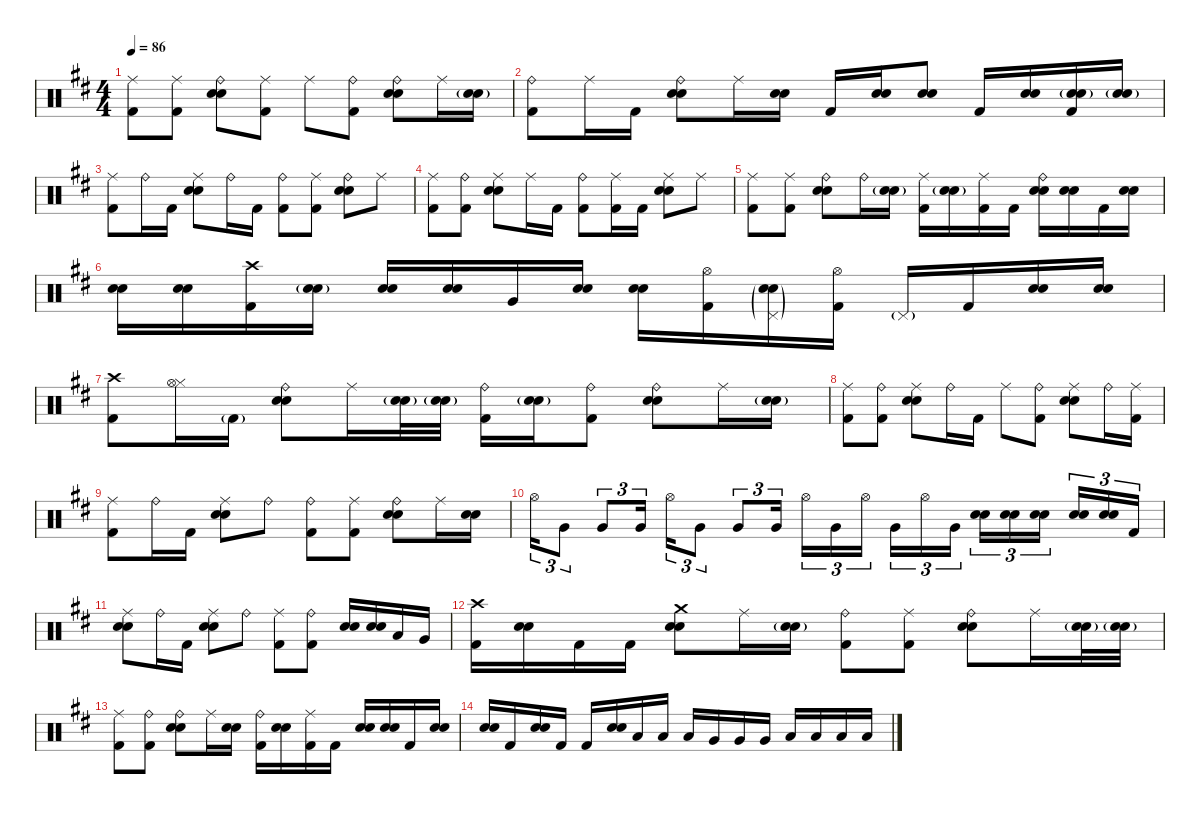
\defaultSystemsLayout 4
\hideDynamics
\bracketExtendMode nobrackets
\singleTrackTrackNamePolicy hidden
\multiTrackTrackNamePolicy hidden
\firstSystemTrackNameMode fullname
\firstSystemTrackNameOrientation horizontal
\otherSystemsTrackNameOrientation horizontal
\track ("Batterie" "drm.") {defaultSystemsLayout 4 instrument percussion}
\staff {score}
\articulation defaults
\ts (4 4)
\tempo 86
\clef neutral
\ks bminor
("Ride (middle)"{acc forcenatural} "Kick (hit) 2"{acc forcenatural}).8{dy mf beam Down} ("Ride (middle)"{acc forcenatural} "Kick (hit) 2"{acc forcenatural}).8{beam Down} ("Ride (bell)"{acc forcenatural} "Snare (hit) 2"{acc forcenatural} "Snare (hit) 2"{acc forcenatural}).8{beam Down} ("Ride (middle)"{acc forcenatural} "Kick (hit) 2"{acc forcenatural}).8{beam Down} "Ride (middle)"{acc forcenatural}.8{beam Down} ("Ride (bell)"{acc forcenatural} "Kick (hit) 2"{acc forcenatural}).8{beam Down} ("Ride (bell)"{acc forcenatural} "Snare (hit) 2"{acc forcenatural} "Snare (hit) 2"{acc forcenatural}).8{beam Down} "Ride (middle)"{acc forcenatural}.16{beam Down} ("Snare (hit) 2"{g acc forcenatural} "Snare (hit) 2"{g acc forcenatural}).16{dy mp beam Down} |
("Ride (bell)"{acc forcenatural} "Kick (hit) 2"{acc forcenatural}).8{dy mf beam Down} "Ride (middle)"{acc forcenatural}.16{beam Down} "Kick (hit) 2"{acc forcenatural}.16{beam Down} ("Ride (bell)"{acc forcenatural} "Snare (hit) 2"{acc forcenatural} "Snare (hit) 2"{acc forcenatural}).8{beam Down} "Ride (middle)"{acc forcenatural}.16{beam Down} ("Snare (hit) 2"{acc forcenatural} "Snare (hit) 2"{acc forcenatural}).16{beam Down} "Kick (hit) 2"{acc forcenatural}.16{beam Up} ("Snare (hit) 2"{acc forcenatural} "Snare (hit) 2"{acc forcenatural}).16{beam Up} ("Snare (hit) 2"{acc forcenatural} "Snare (hit) 2"{acc forcenatural}).8{beam Up} "Kick (hit) 2"{acc forcenatural}.16{beam Up} ("Snare (hit) 2"{acc forcenatural} "Snare (hit) 2"{acc forcenatural}).16{beam Up} ("Snare (hit) 2"{g acc forcenatural} "Snare (hit) 2"{g acc forcenatural} "Kick (hit) 2"{acc forcenatural}).16{beam Up} ("Snare (hit) 2"{g acc forcenatural} "Snare (hit) 2"{g acc forcenatural}).16{dy f beam Up} |
("Ride (middle)"{acc forcenatural} "Kick (hit) 2"{acc forcenatural}).8{dy mf beam Down} "Ride (bell)"{acc forcenatural}.16{beam Down} "Kick (hit) 2"{acc forcenatural}.16{beam Down} ("Ride (middle)"{acc forcenatural} "Snare (hit) 2"{acc forcenatural} "Snare (hit) 2"{acc forcenatural}).8{beam Down} "Ride (bell)"{acc forcenatural}.16{beam Down} "Kick (hit) 2"{acc forcenatural}.16{beam Down} ("Ride (bell)"{acc forcenatural} "Kick (hit) 2"{acc forcenatural}).8{beam Down} ("Ride (middle)"{acc forcenatural} "Kick (hit) 2"{acc forcenatural}).8{beam Down} ("Ride (bell)"{acc forcenatural} "Snare (hit) 2"{acc forcenatural} "Snare (hit) 2"{acc forcenatural}).8{beam Down} "Ride (middle)"{acc forcenatural}.8{beam Down} |
("Ride (middle)"{acc forcenatural} "Kick (hit) 2"{acc forcenatural}).8{beam Down} ("Ride (bell)"{acc forcenatural} "Kick (hit) 2"{acc forcenatural}).8{beam Down} ("Ride (middle)"{acc forcenatural} "Snare (hit) 2"{acc forcenatural} "Snare (hit) 2"{acc forcenatural}).8{beam Down} "Ride (middle)"{acc forcenatural}.16{beam Down} "Kick (hit) 2"{acc forcenatural}.16{beam Down} ("Ride (bell)"{acc forcenatural} "Kick (hit) 2"{acc forcenatural}).8{beam Down} ("Ride (middle)"{acc forcenatural} "Kick (hit) 2"{acc forcenatural}).16{beam Down} "Kick (hit) 2"{acc forcenatural}.16{beam Down} ("Ride (middle)"{acc forcenatural} "Snare (hit) 2"{acc forcenatural} "Snare (hit) 2"{acc forcenatural}).8{beam Down} "Ride (middle)"{acc forcenatural}.8{beam Down} |
("Ride (middle)"{acc forcenatural} "Kick (hit) 2"{acc forcenatural}).8{beam Down} ("Ride (middle)"{acc forcenatural} "Kick (hit) 2"{acc forcenatural}).8{beam Down} ("Ride (bell)"{acc forcenatural} "Snare (hit) 2"{acc forcenatural} "Snare (hit) 2"{acc forcenatural}).8{beam Down} "Ride (bell)"{acc forcenatural}.16{beam Down} ("Snare (hit) 2"{g acc forcenatural} "Snare (hit) 2"{g acc forcenatural}).16{dy f beam Down} ("Ride (middle)"{acc forcenatural} "Kick (hit) 2"{acc forcenatural}).16{dy mf beam Down} ("Snare (hit) 2"{g acc forcenatural} "Snare (hit) 2"{g acc forcenatural}).16{dy f beam Down} ("Ride (middle)"{acc forcenatural} "Kick (hit) 2"{acc forcenatural}).16{dy mf beam Down} "Kick (hit) 2"{acc forcenatural}.16{beam Down} ("Ride (bell)"{acc forcenatural} "Snare (hit) 2"{acc forcenatural} "Snare (hit) 2"{acc forcenatural}).16{beam Down} ("Snare (hit) 2"{acc forcenatural} "Snare (hit) 2"{acc forcenatural}).16{beam Down} "Kick (hit) 2"{acc forcenatural}.16{beam Down} ("Snare (hit) 2"{acc forcenatural} "Snare (hit) 2"{acc forcenatural}).16{beam Down} |
("Snare (hit) 2"{acc forcenatural} "Snare (hit) 2"{acc forcenatural}).16{beam Down} ("Snare (hit) 2"{acc forcenatural} "Snare (hit) 2"{acc forcenatural}).16{beam Down} ("Crash high (hit)"{acc forcenatural} "Kick (hit) 2"{acc forcenatural}).16{beam Down} ("Snare (hit) 2"{g acc forcenatural} "Snare (hit) 2"{g acc forcenatural}).16{dy f beam Down} ("Snare (hit) 2"{acc forcenatural} "Snare (hit) 2"{acc forcenatural}).16{dy mf beam Up} ("Snare (hit) 2"{acc forcenatural} "Snare (hit) 2"{acc forcenatural}).16{beam Up} "Very Low Tom (hit)"{acc forcenatural}.16{dy ff beam Up} ("Snare (hit) 2"{acc forcenatural} "Snare (hit) 2"{acc forcenatural}).16{dy mf beam Up} ("Snare (hit) 2"{acc forcenatural} "Snare (hit) 2"{acc forcenatural}).16{beam Down} ("Hi-Hat (open)"{acc forcenatural} "Kick (hit) 2"{acc forcenatural}).16{beam Down} ("Pedal Hi-Hat (hit)"{g acc forcenatural} "Snare (hit) 2"{g acc forcenatural} "Snare (hit) 2"{g acc forcenatural}).16{dy f beam Down} ("Hi-Hat (open)"{acc forcenatural} "Kick (hit) 2"{acc forcenatural}).16{dy mf beam Down} "Pedal Hi-Hat (hit)"{g acc forcenatural}.16{dy f beam Up} "Kick (hit) 2"{acc forcenatural}.16{dy mf beam Up} ("Snare (hit) 2"{acc forcenatural} "Snare (hit) 2"{acc forcenatural}).16{beam Up} ("Snare (hit) 2"{acc forcenatural} "Snare (hit) 2"{acc forcenatural}).16{beam Up} |
("Crash high (hit)"{acc forcenatural} "Kick (hit) 2"{acc forcenatural}).8{beam Down} ("Hi-Hat (closed)"{acc forcenatural} "Hi-Hat (open)"{acc forcenatural}).16{dy f beam Down} "Kick (hit) 2"{g acc forcenatural}.16{beam Down} ("Ride (bell)"{acc forcenatural} "Snare (hit) 2"{acc forcenatural} "Snare (hit) 2"{acc forcenatural}).8{dy mf beam Down} "Ride (middle)"{acc forcenatural}.16{beam Down} ("Snare (hit) 2"{g acc forcenatural} "Snare (hit) 2"{g acc forcenatural}).32{beam Down} ("Snare (hit) 2"{g acc forcenatural} "Snare (hit) 2"{g acc forcenatural}).32{beam Down} ("Ride (bell)"{acc forcenatural} "Kick (hit) 2"{acc forcenatural}).16{beam Down} ("Snare (hit) 2"{g acc forcenatural} "Snare (hit) 2"{g acc forcenatural}).16{beam Down} ("Ride (bell)"{acc forcenatural} "Kick (hit) 2"{acc forcenatural}).8{beam Down} ("Ride (bell)"{acc forcenatural} "Snare (hit) 2"{acc forcenatural} "Snare (hit) 2"{acc forcenatural}).8{beam Down} "Ride (middle)"{acc forcenatural}.16{beam Down} ("Snare (hit) 2"{g acc forcenatural} "Snare (hit) 2"{g acc forcenatural}).16{dy f beam Down} |
("Ride (middle)"{acc forcenatural} "Kick (hit) 2"{acc forcenatural}).8{dy mf beam Down} ("Ride (bell)"{acc forcenatural} "Kick (hit) 2"{acc forcenatural}).8{beam Down} ("Ride (middle)"{acc forcenatural} "Snare (hit) 2"{acc forcenatural} "Snare (hit) 2"{acc forcenatural}).8{beam Down} "Ride (bell)"{acc forcenatural}.16{beam Down} "Kick (hit) 2"{acc forcenatural}.16{beam Down} "Ride (middle)"{acc forcenatural}.8{beam Down} ("Ride (bell)"{acc forcenatural} "Kick (hit) 2"{acc forcenatural}).8{beam Down} ("Ride (middle)"{acc forcenatural} "Snare (hit) 2"{acc forcenatural} "Snare (hit) 2"{acc forcenatural}).8{beam Down} "Ride (bell)"{acc forcenatural}.16{beam Down} ("Ride (middle)"{acc forcenatural} "Kick (hit) 2"{acc forcenatural}).16{beam Down} |
("Ride (middle)"{acc forcenatural} "Kick (hit) 2"{acc forcenatural}).8{beam Down} "Ride (bell)"{acc forcenatural}.16{beam Down} "Kick (hit) 2"{acc forcenatural}.16{beam Down} ("Ride (middle)"{acc forcenatural} "Snare (hit) 2"{acc forcenatural} "Snare (hit) 2"{acc forcenatural}).8{beam Down} "Ride (bell)"{acc forcenatural}.8{beam Down} ("Ride (bell)"{acc forcenatural} "Kick (hit) 2"{acc forcenatural}).8{beam Down} ("Ride (middle)"{acc forcenatural} "Kick (hit) 2"{acc forcenatural}).8{beam Down} ("Ride (bell)"{acc forcenatural} "Snare (hit) 2"{acc forcenatural} "Snare (hit) 2"{acc forcenatural}).8{beam Down} "Ride (middle)"{acc forcenatural}.16{beam Down} ("Snare (hit) 2"{acc forcenatural} "Snare (hit) 2"{acc forcenatural}).16{beam Down} |
"Hi-Hat (open)"{acc forcenatural}.16{tu (3 2) dy f beam Down} "Very Low Tom (hit)"{acc forcenatural}.8{tu (3 2) beam Down} "Very Low Tom (hit)"{acc forcenatural}.8{tu (3 2) beam Up} "Very Low Tom (hit)"{acc forcenatural}.16{tu (3 2) beam Up} "Hi-Hat (open)"{acc forcenatural}.16{tu (3 2) beam Down} "Very Low Tom (hit)"{acc forcenatural}.8{tu (3 2) beam Down} "Very Low Tom (hit)"{acc forcenatural}.8{tu (3 2) beam Up} "Very Low Tom (hit)"{acc forcenatural}.16{tu (3 2) beam Up} "Hi-Hat (open)"{acc forcenatural}.16{tu (3 2) beam Down} "Very Low Tom (hit)"{acc forcenatural}.16{tu (3 2) beam Down} "Hi-Hat (open)"{acc forcenatural}.16{tu (3 2) beam Down} "Very Low Tom (hit)"{acc forcenatural}.16{tu (3 2) beam Down} "Hi-Hat (open)"{acc forcenatural}.16{tu (3 2) beam Down} "Very Low Tom (hit)"{acc forcenatural}.16{tu (3 2) beam Down} ("Snare (hit) 2"{acc forcenatural} "Snare (hit) 2"{acc forcenatural}).16{tu (3 2) dy mf beam Down} ("Snare (hit) 2"{acc forcenatural} "Snare (hit) 2"{acc forcenatural}).16{tu (3 2) beam Down} ("Snare (hit) 2"{acc forcenatural} "Snare (hit) 2"{acc forcenatural}).16{tu (3 2) beam Down} ("Snare (hit) 2"{acc forcenatural} "Snare (hit) 2"{acc forcenatural}).16{tu (3 2) beam Up} ("Snare (hit) 2"{acc forcenatural} "Snare (hit) 2"{acc forcenatural}).16{tu (3 2) beam Up} "Kick (hit) 2"{acc forcenatural}.16{tu (3 2) beam Up} |
("Ride (middle)"{acc forcenatural} "Snare (hit) 2"{acc forcenatural} "Snare (hit) 2"{acc forcenatural}).8{beam Down} "Ride (bell)"{acc forcenatural}.16{beam Down} "Kick (hit) 2"{acc forcenatural}.16{beam Down} ("Ride (middle)"{acc forcenatural} "Snare (hit) 2"{acc forcenatural} "Snare (hit) 2"{acc forcenatural}).8{beam Down} "Ride (bell)"{acc forcenatural}.8{beam Down} ("Ride (middle)"{acc forcenatural} "Kick (hit) 2"{acc forcenatural}).8{beam Down} ("Ride (bell)"{acc forcenatural} "Kick (hit) 2"{acc forcenatural}).8{beam Down} ("Snare (hit) 2"{acc forcenatural} "Snare (hit) 2"{acc forcenatural}).16{beam Up} ("Snare (hit) 2"{acc forcenatural} "Snare (hit) 2"{acc forcenatural}).16{beam Up} "Low Tom (hit)"{acc forcenatural}.16{dy f beam Up} "Very Low Tom (hit)"{acc forcenatural}.16{beam Up} |
("Crash high (hit)"{acc forcenatural} "Kick (hit) 2"{acc forcenatural}).16{dy mf beam Down} ("Snare (hit) 2"{acc forcenatural} "Snare (hit) 2"{acc forcenatural}).16{beam Down} "Kick (hit) 2"{acc forcenatural}.16{beam Down} "Kick (hit) 2"{acc forcenatural}.16{beam Down} ("Crash medium (hit)"{acc forcenatural} "Snare (hit) 2"{acc forcenatural} "Snare (hit) 2"{acc forcenatural}).8{beam Down} "Ride (middle)"{acc forcenatural}.16{beam Down} ("Snare (hit) 2"{g acc forcenatural} "Snare (hit) 2"{g acc forcenatural}).16{dy f beam Down} ("Ride (bell)"{acc forcenatural} "Kick (hit) 2"{acc forcenatural}).8{dy mf beam Down} ("Ride (middle)"{acc forcenatural} "Kick (hit) 2"{acc forcenatural}).8{beam Down} ("Ride (bell)"{acc forcenatural} "Snare (hit) 2"{acc forcenatural} "Snare (hit) 2"{acc forcenatural}).8{beam Down} "Ride (middle)"{acc forcenatural}.16{beam Down} ("Snare (hit) 2"{g acc forcenatural} "Snare (hit) 2"{g acc forcenatural}).32{beam Down} ("Snare (hit) 2"{g acc forcenatural} "Snare (hit) 2"{g acc forcenatural}).32{beam Down} |
("Ride (middle)"{acc forcenatural} "Kick (hit) 2"{acc forcenatural}).8{beam Down} ("Ride (bell)"{acc forcenatural} "Kick (hit) 2"{acc forcenatural}).8{beam Down} ("Ride (bell)"{acc forcenatural} "Snare (hit) 2"{acc forcenatural} "Snare (hit) 2"{acc forcenatural}).8{beam Down} "Ride (middle)"{acc forcenatural}.16{beam Down} ("Snare (hit) 2"{acc forcenatural} "Snare (hit) 2"{acc forcenatural}).16{beam Down} ("Ride (bell)"{acc forcenatural} "Kick (hit) 2"{acc forcenatural}).16{beam Down} ("Snare (hit) 2"{acc forcenatural} "Snare (hit) 2"{acc forcenatural}).16{beam Down} ("Ride (middle)"{acc forcenatural} "Kick (hit) 2"{acc forcenatural}).16{beam Down} "Kick (hit) 2"{acc forcenatural}.16{beam Down} ("Snare (hit) 2"{acc forcenatural} "Snare (hit) 2"{acc forcenatural}).16{beam Up} ("Snare (hit) 2"{acc forcenatural} "Snare (hit) 2"{acc forcenatural}).16{beam Up} "Kick (hit) 2"{acc forcenatural}.16{beam Up} ("Snare (hit) 2"{acc forcenatural} "Snare (hit) 2"{acc forcenatural}).16{beam Up} |
("Snare (hit) 2"{acc forcenatural} "Snare (hit) 2"{acc forcenatural}).16{beam Up} "Kick (hit) 2"{acc forcenatural}.16{beam Up} ("Snare (hit) 2"{acc forcenatural} "Snare (hit) 2"{acc forcenatural}).16{beam Up} "Kick (hit) 2"{acc forcenatural}.16{beam Up} "Kick (hit) 2"{acc forcenatural}.16{beam Up} ("Snare (hit) 2"{acc forcenatural} "Snare (hit) 2"{acc forcenatural}).16{beam Up} "Low Tom (hit)"{acc forcenatural}.16{dy f beam Up} "Low Tom (hit)"{acc forcenatural}.16{beam Up} "Low Tom (hit)"{acc forcenatural}.16{beam Up} "Very Low Tom (hit)"{acc forcenatural}.16{beam Up} "Very Low Tom (hit)"{acc forcenatural}.16{beam Up} "Very Low Tom (hit)"{acc forcenatural}.16{beam Up} "Low Floor Tom (hit)"{acc forcenatural}.16{beam Up} "Low Floor Tom (hit)"{acc forcenatural}.16{beam Up} "Low Floor Tom (hit)"{acc forcenatural}.16{beam Up} "Low Floor Tom (hit)"{acc forcenatural}.16{beam Up}
